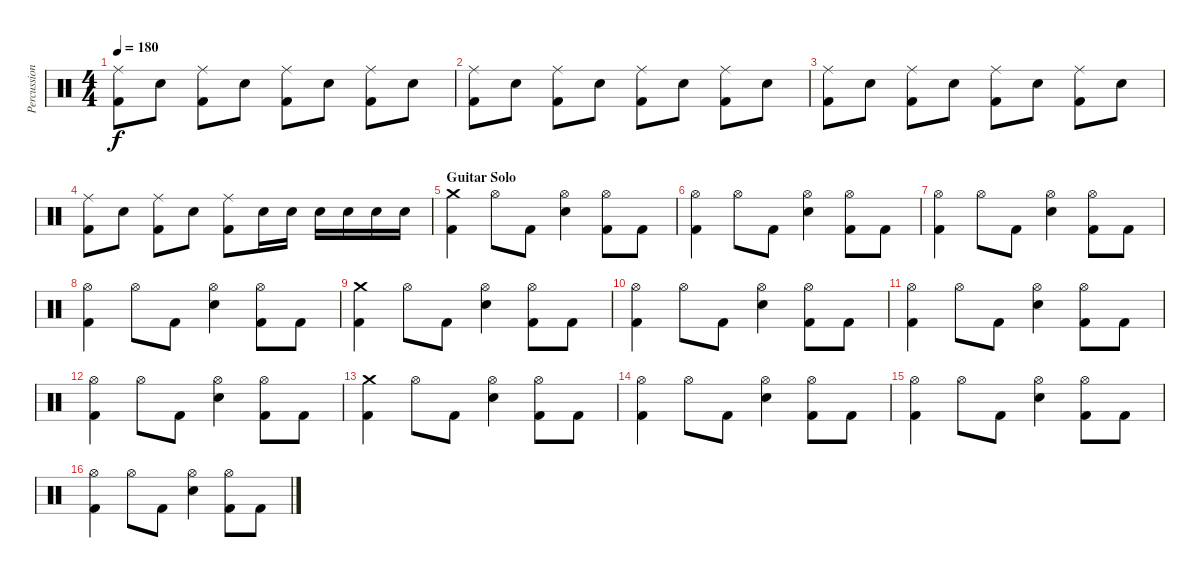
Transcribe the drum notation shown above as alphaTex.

\track ("Percussion" "Percussion") {instrument percussion}
\staff {score}
\articulation defaults
\ts (4 4)
\tempo 180
\clef neutral
\ks c
("Ride (middle)" "Kick (hit) 2").8{dy f} "Electric Snare (hit)".8 ("Ride (middle)" "Kick (hit) 2").8 "Electric Snare (hit)".8 ("Ride (middle)" "Kick (hit) 2").8 "Electric Snare (hit)".8 ("Ride (middle)" "Kick (hit) 2").8 "Electric Snare (hit)".8 |
("Ride (middle)" "Kick (hit) 2").8 "Electric Snare (hit)".8 ("Ride (middle)" "Kick (hit) 2").8 "Electric Snare (hit)".8 ("Ride (middle)" "Kick (hit) 2").8 "Electric Snare (hit)".8 ("Ride (middle)" "Kick (hit) 2").8 "Electric Snare (hit)".8 |
("Ride (middle)" "Kick (hit) 2").8 "Electric Snare (hit)".8 ("Ride (middle)" "Kick (hit) 2").8 "Electric Snare (hit)".8 ("Ride (middle)" "Kick (hit) 2").8 "Electric Snare (hit)".8 ("Ride (middle)" "Kick (hit) 2").8 "Electric Snare (hit)".8 |
("Ride (middle)" "Kick (hit) 2").8 "Electric Snare (hit)".8 ("Ride (middle)" "Kick (hit) 2").8 "Electric Snare (hit)".8 ("Ride (middle)" "Kick (hit) 2").8 "Electric Snare (hit)".16 "Electric Snare (hit)".16 "Electric Snare (hit)".16 "Electric Snare (hit)".16 "Electric Snare (hit)".16 "Electric Snare (hit)".16 |
\section ("" "Guitar Solo")
("Crash medium (hit)" "Kick (hit) 2").4 "Hi-Hat (open)".8 "Kick (hit) 2".8 ("Hi-Hat (open)" "Electric Snare (hit)").4 ("Hi-Hat (open)" "Kick (hit) 2").8 "Kick (hit) 2".8 |
("Hi-Hat (open)" "Kick (hit) 2").4 "Hi-Hat (open)".8 "Kick (hit) 2".8 ("Hi-Hat (open)" "Electric Snare (hit)").4 ("Hi-Hat (open)" "Kick (hit) 2").8 "Kick (hit) 2".8 |
("Hi-Hat (open)" "Kick (hit) 2").4 "Hi-Hat (open)".8 "Kick (hit) 2".8 ("Hi-Hat (open)" "Electric Snare (hit)").4 ("Hi-Hat (open)" "Kick (hit) 2").8 "Kick (hit) 2".8 |
("Hi-Hat (open)" "Kick (hit) 2").4 "Hi-Hat (open)".8 "Kick (hit) 2".8 ("Hi-Hat (open)" "Electric Snare (hit)").4 ("Hi-Hat (open)" "Kick (hit) 2").8 "Kick (hit) 2".8 |
("Crash medium (hit)" "Kick (hit) 2").4 "Hi-Hat (open)".8 "Kick (hit) 2".8 ("Hi-Hat (open)" "Electric Snare (hit)").4 ("Hi-Hat (open)" "Kick (hit) 2").8 "Kick (hit) 2".8 |
("Hi-Hat (open)" "Kick (hit) 2").4 "Hi-Hat (open)".8 "Kick (hit) 2".8 ("Hi-Hat (open)" "Electric Snare (hit)").4 ("Hi-Hat (open)" "Kick (hit) 2").8 "Kick (hit) 2".8 |
("Hi-Hat (open)" "Kick (hit) 2").4 "Hi-Hat (open)".8 "Kick (hit) 2".8 ("Hi-Hat (open)" "Electric Snare (hit)").4 ("Hi-Hat (open)" "Kick (hit) 2").8 "Kick (hit) 2".8 |
("Hi-Hat (open)" "Kick (hit) 2").4 "Hi-Hat (open)".8 "Kick (hit) 2".8 ("Hi-Hat (open)" "Electric Snare (hit)").4 ("Hi-Hat (open)" "Kick (hit) 2").8 "Kick (hit) 2".8 |
("Crash medium (hit)" "Kick (hit) 2").4 "Hi-Hat (open)".8 "Kick (hit) 2".8 ("Hi-Hat (open)" "Electric Snare (hit)").4 ("Hi-Hat (open)" "Kick (hit) 2").8 "Kick (hit) 2".8 |
("Hi-Hat (open)" "Kick (hit) 2").4 "Hi-Hat (open)".8 "Kick (hit) 2".8 ("Hi-Hat (open)" "Electric Snare (hit)").4 ("Hi-Hat (open)" "Kick (hit) 2").8 "Kick (hit) 2".8 |
("Hi-Hat (open)" "Kick (hit) 2").4 "Hi-Hat (open)".8 "Kick (hit) 2".8 ("Hi-Hat (open)" "Electric Snare (hit)").4 ("Hi-Hat (open)" "Kick (hit) 2").8 "Kick (hit) 2".8 |
("Hi-Hat (open)" "Kick (hit) 2").4 "Hi-Hat (open)".8 "Kick (hit) 2".8 ("Hi-Hat (open)" "Electric Snare (hit)").4 ("Hi-Hat (open)" "Kick (hit) 2").8 "Kick (hit) 2".8
